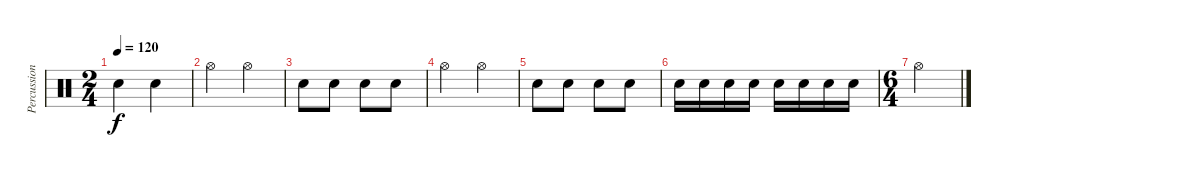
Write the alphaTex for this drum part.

\track ("Percussion" "Percussion") {instrument percussion}
\staff {score}
\articulation defaults
\ts (2 4)
\tempo 120
\clef neutral
\ks c "Electric Snare (hit)".4{dy f} "Snare (hit) 2".4
|
"Hi-Hat (open)".4 "Hi-Hat (open)".4 |
"Electric Snare (hit)".8 "Snare (hit) 2".8 "Electric Snare (hit)".8 "Snare (hit) 2".8 |
"Hi-Hat (open)".4 "Hi-Hat (open)".4 |
"Electric Snare (hit)".8 "Snare (hit) 2".8 "Electric Snare (hit)".8 "Snare (hit) 2".8 |
"Snare (hit) 2".16 "Snare (hit) 2".16 "Snare (hit) 2".16 "Snare (hit) 2".16 "Snare (hit) 2".16 "Snare (hit) 2".16 "Snare (hit) 2".16 "Snare (hit) 2".16 |
\ts (6 4)
"Hi-Hat (open)".2
